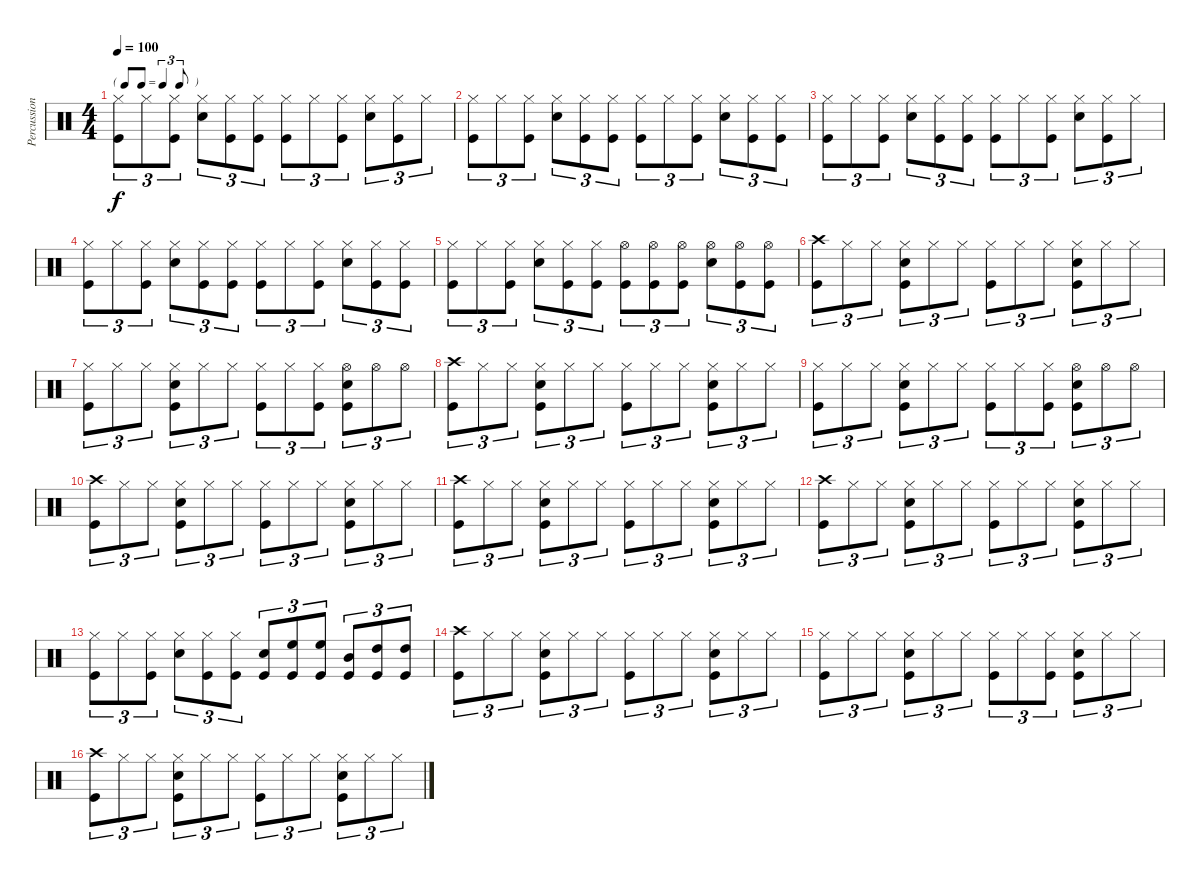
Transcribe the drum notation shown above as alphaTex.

\track ("Percussions" "Percussion") {instrument percussion}
\staff {score}
\articulation defaults
\ts (4 4)
\tf triplet8th
\tempo 100
\clef neutral
\ks c
("Hi-Hat (closed)" "Kick (hit)").8{tu (3 2) dy f} "Hi-Hat (closed)".8{tu (3 2)} ("Hi-Hat (closed)" "Kick (hit)").8{tu (3 2)} ("Hi-Hat (closed)" "Snare (hit) 2").8{tu (3 2)} ("Hi-Hat (closed)" "Kick (hit)").8{tu (3 2)} ("Hi-Hat (closed)" "Kick (hit)").8{tu (3 2)} ("Hi-Hat (closed)" "Kick (hit)").8{tu (3 2)} "Hi-Hat (closed)".8{tu (3 2)} ("Hi-Hat (closed)" "Kick (hit)").8{tu (3 2)} ("Hi-Hat (closed)" "Snare (hit) 2").8{tu (3 2)} ("Hi-Hat (closed)" "Kick (hit)").8{tu (3 2)} "Hi-Hat (closed)".8{tu (3 2)} |
("Hi-Hat (closed)" "Kick (hit)").8{tu (3 2)} "Hi-Hat (closed)".8{tu (3 2)} ("Hi-Hat (closed)" "Kick (hit)").8{tu (3 2)} ("Hi-Hat (closed)" "Snare (hit) 2").8{tu (3 2)} ("Hi-Hat (closed)" "Kick (hit)").8{tu (3 2)} ("Hi-Hat (closed)" "Kick (hit)").8{tu (3 2)} ("Hi-Hat (closed)" "Kick (hit)").8{tu (3 2)} "Hi-Hat (closed)".8{tu (3 2)} ("Hi-Hat (closed)" "Kick (hit)").8{tu (3 2)} ("Hi-Hat (closed)" "Snare (hit) 2").8{tu (3 2)} ("Hi-Hat (closed)" "Kick (hit)").8{tu (3 2)} ("Hi-Hat (closed)" "Kick (hit)").8{tu (3 2)} |
("Hi-Hat (closed)" "Kick (hit)").8{tu (3 2)} "Hi-Hat (closed)".8{tu (3 2)} ("Hi-Hat (closed)" "Kick (hit)").8{tu (3 2)} ("Hi-Hat (closed)" "Snare (hit) 2").8{tu (3 2)} ("Hi-Hat (closed)" "Kick (hit)").8{tu (3 2)} ("Hi-Hat (closed)" "Kick (hit)").8{tu (3 2)} ("Hi-Hat (closed)" "Kick (hit)").8{tu (3 2)} "Hi-Hat (closed)".8{tu (3 2)} ("Hi-Hat (closed)" "Kick (hit)").8{tu (3 2)} ("Hi-Hat (closed)" "Snare (hit) 2").8{tu (3 2)} ("Hi-Hat (closed)" "Kick (hit)").8{tu (3 2)} "Hi-Hat (closed)".8{tu (3 2)} |
("Hi-Hat (closed)" "Kick (hit)").8{tu (3 2)} "Hi-Hat (closed)".8{tu (3 2)} ("Hi-Hat (closed)" "Kick (hit)").8{tu (3 2)} ("Hi-Hat (closed)" "Snare (hit) 2").8{tu (3 2)} ("Hi-Hat (closed)" "Kick (hit)").8{tu (3 2)} ("Hi-Hat (closed)" "Kick (hit)").8{tu (3 2)} ("Hi-Hat (closed)" "Kick (hit)").8{tu (3 2)} "Hi-Hat (closed)".8{tu (3 2)} ("Hi-Hat (closed)" "Kick (hit)").8{tu (3 2)} ("Hi-Hat (closed)" "Snare (hit) 2").8{tu (3 2)} ("Hi-Hat (closed)" "Kick (hit)").8{tu (3 2)} ("Hi-Hat (closed)" "Kick (hit)").8{tu (3 2)} |
("Hi-Hat (closed)" "Kick (hit)").8{tu (3 2)} "Hi-Hat (closed)".8{tu (3 2)} ("Hi-Hat (closed)" "Kick (hit)").8{tu (3 2)} ("Hi-Hat (closed)" "Snare (hit) 2").8{tu (3 2)} ("Hi-Hat (closed)" "Kick (hit)").8{tu (3 2)} ("Hi-Hat (closed)" "Kick (hit)").8{tu (3 2)} ("Hi-Hat (open)" "Kick (hit)").8{tu (3 2)} ("Hi-Hat (open)" "Kick (hit)").8{tu (3 2)} ("Hi-Hat (open)" "Kick (hit)").8{tu (3 2)} ("Hi-Hat (open)" "Snare (hit) 2").8{tu (3 2)} ("Hi-Hat (open)" "Kick (hit)").8{tu (3 2)} ("Hi-Hat (open)" "Kick (hit)").8{tu (3 2)} |
("Crash high (hit)" "Kick (hit)").8{tu (3 2)} "Hi-Hat (closed)".8{tu (3 2)} "Hi-Hat (closed)".8{tu (3 2)} ("Hi-Hat (closed)" "Snare (hit) 2" "Kick (hit)").8{tu (3 2)} "Hi-Hat (closed)".8{tu (3 2)} "Hi-Hat (closed)".8{tu (3 2)} ("Hi-Hat (closed)" "Kick (hit)").8{tu (3 2)} "Hi-Hat (closed)".8{tu (3 2)} "Hi-Hat (closed)".8{tu (3 2)} ("Hi-Hat (closed)" "Snare (hit) 2" "Kick (hit)").8{tu (3 2)} "Hi-Hat (closed)".8{tu (3 2)} "Hi-Hat (closed)".8{tu (3 2)} |
("Hi-Hat (closed)" "Kick (hit)").8{tu (3 2)} "Hi-Hat (closed)".8{tu (3 2)} "Hi-Hat (closed)".8{tu (3 2)} ("Hi-Hat (closed)" "Snare (hit) 2" "Kick (hit)").8{tu (3 2)} "Hi-Hat (closed)".8{tu (3 2)} "Hi-Hat (closed)".8{tu (3 2)} ("Hi-Hat (closed)" "Kick (hit)").8{tu (3 2)} "Hi-Hat (closed)".8{tu (3 2)} ("Hi-Hat (closed)" "Kick (hit)").8{tu (3 2)} ("Hi-Hat (open)" "Snare (hit) 2" "Kick (hit)").8{tu (3 2)} "Hi-Hat (open)".8{tu (3 2)} "Hi-Hat (open)".8{tu (3 2)} |
("Crash high (hit)" "Kick (hit)").8{tu (3 2)} "Hi-Hat (closed)".8{tu (3 2)} "Hi-Hat (closed)".8{tu (3 2)} ("Hi-Hat (closed)" "Snare (hit) 2" "Kick (hit)").8{tu (3 2)} "Hi-Hat (closed)".8{tu (3 2)} "Hi-Hat (closed)".8{tu (3 2)} ("Hi-Hat (closed)" "Kick (hit)").8{tu (3 2)} "Hi-Hat (closed)".8{tu (3 2)} "Hi-Hat (closed)".8{tu (3 2)} ("Hi-Hat (closed)" "Snare (hit) 2" "Kick (hit)").8{tu (3 2)} "Hi-Hat (closed)".8{tu (3 2)} "Hi-Hat (closed)".8{tu (3 2)} |
("Hi-Hat (closed)" "Kick (hit)").8{tu (3 2)} "Hi-Hat (closed)".8{tu (3 2)} "Hi-Hat (closed)".8{tu (3 2)} ("Hi-Hat (closed)" "Snare (hit) 2" "Kick (hit)").8{tu (3 2)} "Hi-Hat (closed)".8{tu (3 2)} "Hi-Hat (closed)".8{tu (3 2)} ("Hi-Hat (closed)" "Kick (hit)").8{tu (3 2)} "Hi-Hat (closed)".8{tu (3 2)} ("Hi-Hat (closed)" "Kick (hit)").8{tu (3 2)} ("Hi-Hat (open)" "Snare (hit) 2" "Kick (hit)").8{tu (3 2)} "Hi-Hat (open)".8{tu (3 2)} "Hi-Hat (open)".8{tu (3 2)} |
("Crash high (hit)" "Kick (hit)").8{tu (3 2)} "Hi-Hat (closed)".8{tu (3 2)} "Hi-Hat (closed)".8{tu (3 2)} ("Hi-Hat (closed)" "Snare (hit) 2" "Kick (hit)").8{tu (3 2)} "Hi-Hat (closed)".8{tu (3 2)} "Hi-Hat (closed)".8{tu (3 2)} ("Hi-Hat (closed)" "Kick (hit)").8{tu (3 2)} "Hi-Hat (closed)".8{tu (3 2)} "Hi-Hat (closed)".8{tu (3 2)} ("Hi-Hat (closed)" "Snare (hit) 2" "Kick (hit)").8{tu (3 2)} "Hi-Hat (closed)".8{tu (3 2)} "Hi-Hat (closed)".8{tu (3 2)} |
("Crash high (hit)" "Kick (hit)").8{tu (3 2)} "Hi-Hat (closed)".8{tu (3 2)} "Hi-Hat (closed)".8{tu (3 2)} ("Hi-Hat (closed)" "Snare (hit) 2" "Kick (hit)").8{tu (3 2)} "Hi-Hat (closed)".8{tu (3 2)} "Hi-Hat (closed)".8{tu (3 2)} ("Hi-Hat (closed)" "Kick (hit)").8{tu (3 2)} "Hi-Hat (closed)".8{tu (3 2)} "Hi-Hat (closed)".8{tu (3 2)} ("Hi-Hat (closed)" "Snare (hit) 2" "Kick (hit)").8{tu (3 2)} "Hi-Hat (closed)".8{tu (3 2)} "Hi-Hat (closed)".8{tu (3 2)} |
("Crash high (hit)" "Kick (hit)").8{tu (3 2)} "Hi-Hat (closed)".8{tu (3 2)} "Hi-Hat (closed)".8{tu (3 2)} ("Hi-Hat (closed)" "Snare (hit) 2" "Kick (hit)").8{tu (3 2)} "Hi-Hat (closed)".8{tu (3 2)} "Hi-Hat (closed)".8{tu (3 2)} ("Hi-Hat (closed)" "Kick (hit)").8{tu (3 2)} "Hi-Hat (closed)".8{tu (3 2)} "Hi-Hat (closed)".8{tu (3 2)} ("Hi-Hat (closed)" "Snare (hit) 2" "Kick (hit)").8{tu (3 2)} "Hi-Hat (closed)".8{tu (3 2)} "Hi-Hat (closed)".8{tu (3 2)} |
("Hi-Hat (closed)" "Kick (hit)").8{tu (3 2)} "Hi-Hat (closed)".8{tu (3 2)} ("Hi-Hat (closed)" "Kick (hit)").8{tu (3 2)} ("Hi-Hat (closed)" "Snare (hit) 2").8{tu (3 2)} ("Hi-Hat (closed)" "Kick (hit)").8{tu (3 2)} ("Hi-Hat (closed)" "Kick (hit)").8{tu (3 2)} ("Electric Snare (hit)" "Kick (hit)").8{tu (3 2)} ("High Floor Tom (hit)" "Kick (hit)").8{tu (3 2)} ("High Floor Tom (hit)" "Kick (hit)").8{tu (3 2)} ("Mid Tom (hit)" "Kick (hit)").8{tu (3 2)} ("High Tom (hit)" "Kick (hit)").8{tu (3 2)} ("High Tom (hit)" "Kick (hit)").8{tu (3 2)} |
("Crash high (hit)" "Kick (hit)").8{tu (3 2)} "Hi-Hat (closed)".8{tu (3 2)} "Hi-Hat (closed)".8{tu (3 2)} ("Hi-Hat (closed)" "Snare (hit) 2" "Kick (hit)").8{tu (3 2)} "Hi-Hat (closed)".8{tu (3 2)} "Hi-Hat (closed)".8{tu (3 2)} ("Hi-Hat (closed)" "Kick (hit)").8{tu (3 2)} "Hi-Hat (closed)".8{tu (3 2)} "Hi-Hat (closed)".8{tu (3 2)} ("Hi-Hat (closed)" "Snare (hit) 2" "Kick (hit)").8{tu (3 2)} "Hi-Hat (closed)".8{tu (3 2)} "Hi-Hat (closed)".8{tu (3 2)} |
("Hi-Hat (closed)" "Kick (hit)").8{tu (3 2)} "Hi-Hat (closed)".8{tu (3 2)} "Hi-Hat (closed)".8{tu (3 2)} ("Hi-Hat (closed)" "Snare (hit) 2" "Kick (hit)").8{tu (3 2)} "Hi-Hat (closed)".8{tu (3 2)} "Hi-Hat (closed)".8{tu (3 2)} ("Hi-Hat (closed)" "Kick (hit)").8{tu (3 2)} "Hi-Hat (closed)".8{tu (3 2)} ("Hi-Hat (closed)" "Kick (hit)").8{tu (3 2)} ("Hi-Hat (closed)" "Snare (hit) 2" "Kick (hit)").8{tu (3 2)} "Hi-Hat (closed)".8{tu (3 2)} "Hi-Hat (closed)".8{tu (3 2)} |
("Crash high (hit)" "Kick (hit)").8{tu (3 2)} "Hi-Hat (closed)".8{tu (3 2)} "Hi-Hat (closed)".8{tu (3 2)} ("Hi-Hat (closed)" "Snare (hit) 2" "Kick (hit)").8{tu (3 2)} "Hi-Hat (closed)".8{tu (3 2)} "Hi-Hat (closed)".8{tu (3 2)} ("Hi-Hat (closed)" "Kick (hit)").8{tu (3 2)} "Hi-Hat (closed)".8{tu (3 2)} "Hi-Hat (closed)".8{tu (3 2)} ("Hi-Hat (closed)" "Snare (hit) 2" "Kick (hit)").8{tu (3 2)} "Hi-Hat (closed)".8{tu (3 2)} "Hi-Hat (closed)".8{tu (3 2)}
